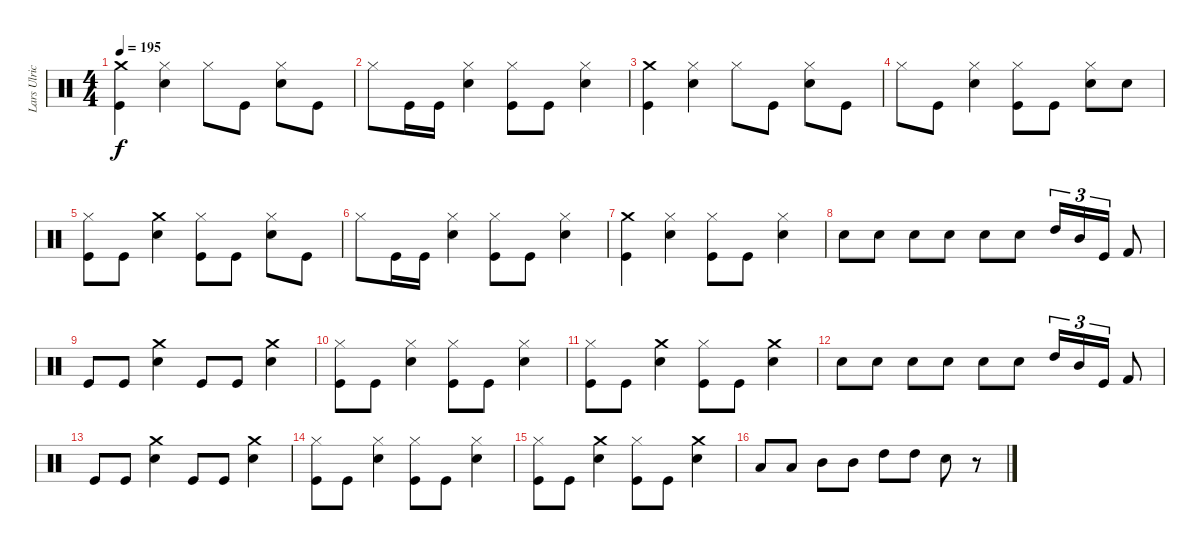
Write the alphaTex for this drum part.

\track ("Lars Ulrich (Drums)" "Lars Ulric") {instrument percussion}
\staff {score}
\articulation defaults
\ts (4 4)
\tempo 195
\clef neutral
\ks c
("Kick (hit)" "Crash medium (hit)").4{dy f} ("Hi-Hat (closed)" "Snare (hit) 2").4 "Hi-Hat (closed)".8 "Kick (hit)".8 ("Snare (hit) 2" "Hi-Hat (closed)").8 "Kick (hit)".8 |
"Hi-Hat (closed)".8 "Kick (hit)".16 "Kick (hit)".16 ("Snare (hit) 2" "Hi-Hat (closed)").4 ("Kick (hit)" "Hi-Hat (closed)").8 "Kick (hit)".8 ("Snare (hit) 2" "Hi-Hat (closed)").4 |
("Kick (hit)" "Crash medium (hit)").4 ("Snare (hit) 2" "Hi-Hat (closed)").4 "Hi-Hat (closed)".8 "Kick (hit)".8 ("Snare (hit) 2" "Hi-Hat (closed)").8 "Kick (hit)".8 |
"Hi-Hat (closed)".8 "Kick (hit)".8 ("Snare (hit) 2" "Hi-Hat (closed)").4 ("Kick (hit)" "Hi-Hat (closed)").8 "Kick (hit)".8 ("Snare (hit) 2" "Hi-Hat (closed)").8 "Snare (hit) 2".8 |
("Hi-Hat (closed)" "Kick (hit)").8 "Kick (hit)".8 ("Crash medium (hit)" "Snare (hit) 2").4 ("Hi-Hat (closed)" "Kick (hit)").8 "Kick (hit)".8 ("Snare (hit) 2" "Hi-Hat (closed)").8 "Kick (hit)".8 |
"Hi-Hat (closed)".8 "Kick (hit)".16 "Kick (hit)".16 ("Snare (hit) 2" "Hi-Hat (closed)").4 ("Kick (hit)" "Hi-Hat (closed)").8 "Kick (hit)".8 ("Snare (hit) 2" "Hi-Hat (closed)").4 |
("Kick (hit)" "Crash medium (hit)").4 ("Snare (hit) 2" "Hi-Hat (closed)").4 ("Hi-Hat (closed)" "Kick (hit)").8 "Kick (hit)".8 ("Snare (hit) 2" "Hi-Hat (closed)").4 |
"Snare (hit) 2".8 "Snare (hit) 2".8 "Snare (hit) 2".8 "Snare (hit) 2".8 "Snare (hit) 2".8 "Snare (hit) 2".8 "High Tom (hit)".16{tu (3 2)} "Mid Tom (hit)".16{tu (3 2)} "Kick (hit)".16{tu (3 2)} "Kick (hit) 2".8 |
"Kick (hit)".8 "Kick (hit)".8 ("Crash medium (hit)" "Snare (hit) 2").4 "Kick (hit)".8 "Kick (hit)".8 ("Crash medium (hit)" "Snare (hit) 2").4 |
("Kick (hit)" "Hi-Hat (closed)").8 "Kick (hit)".8 ("Snare (hit) 2" "Hi-Hat (closed)").4 ("Kick (hit)" "Hi-Hat (closed)").8 "Kick (hit)".8 ("Snare (hit) 2" "Hi-Hat (closed)").4 |
("Kick (hit)" "Hi-Hat (closed)").8 "Kick (hit)".8 ("Snare (hit) 2" "Crash medium (hit)").4 ("Kick (hit)" "Hi-Hat (closed)").8 "Kick (hit)".8 ("Crash medium (hit)" "Snare (hit) 2").4 |
"Snare (hit) 2".8 "Snare (hit) 2".8 "Snare (hit) 2".8 "Snare (hit) 2".8 "Snare (hit) 2".8 "Snare (hit) 2".8 "High Tom (hit)".16{tu (3 2)} "Mid Tom (hit)".16{tu (3 2)} "Kick (hit)".16{tu (3 2)} "Kick (hit) 2".8 |
"Kick (hit)".8 "Kick (hit)".8 ("Crash medium (hit)" "Snare (hit) 2").4 "Kick (hit)".8 "Kick (hit)".8 ("Crash medium (hit)" "Snare (hit) 2").4 |
("Kick (hit)" "Hi-Hat (closed)").8 "Kick (hit)".8 ("Snare (hit) 2" "Hi-Hat (closed)").4 ("Kick (hit)" "Hi-Hat (closed)").8 "Kick (hit)".8 ("Snare (hit) 2" "Hi-Hat (closed)").4 |
("Kick (hit)" "Hi-Hat (closed)").8 "Kick (hit)".8 ("Snare (hit) 2" "Crash medium (hit)").4 ("Kick (hit)" "Hi-Hat (closed)").8 "Kick (hit)".8 ("Crash medium (hit)" "Snare (hit) 2").4 |
"Low Tom (hit)".8 "Low Tom (hit)".8 "Mid Tom (hit)".8 "Mid Tom (hit)".8 "High Tom (hit)".8 "High Tom (hit)".8 "Snare (hit) 2".8 r.8
